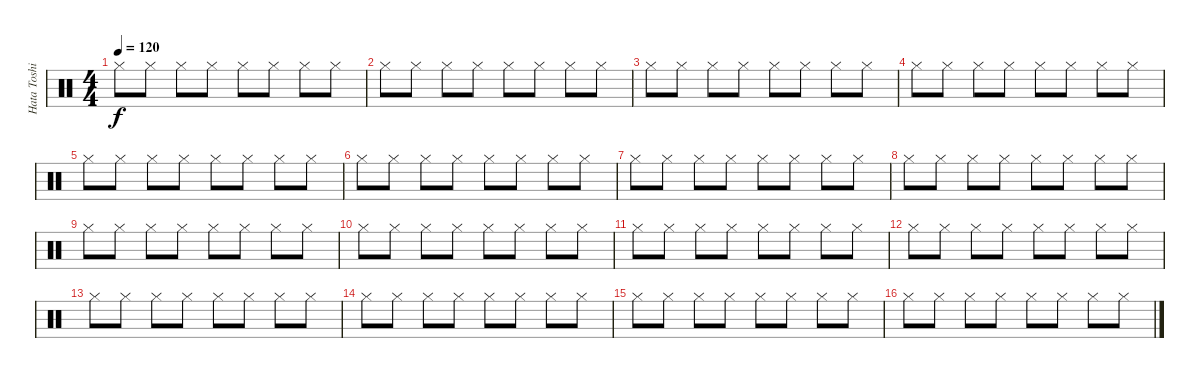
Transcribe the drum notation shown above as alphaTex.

\track ("Hata Toshiki" "Hata Toshi") {instrument percussion}
\staff {score}
\articulation defaults
\ts (4 4)
\tempo 120
\clef neutral
\ks c "Hi-Hat (closed)".8{dy f} "Hi-Hat (closed)".8 "Hi-Hat (closed)".8 "Hi-Hat (closed)".8 "Hi-Hat (closed)".8 "Hi-Hat (closed)".8 "Hi-Hat (closed)".8 "Hi-Hat (closed)".8
|
"Hi-Hat (closed)".8 "Hi-Hat (closed)".8 "Hi-Hat (closed)".8 "Hi-Hat (closed)".8 "Hi-Hat (closed)".8 "Hi-Hat (closed)".8 "Hi-Hat (closed)".8 "Hi-Hat (closed)".8 |
"Hi-Hat (closed)".8 "Hi-Hat (closed)".8 "Hi-Hat (closed)".8 "Hi-Hat (closed)".8 "Hi-Hat (closed)".8 "Hi-Hat (closed)".8 "Hi-Hat (closed)".8 "Hi-Hat (closed)".8 |
"Hi-Hat (closed)".8 "Hi-Hat (closed)".8 "Hi-Hat (closed)".8 "Hi-Hat (closed)".8 "Hi-Hat (closed)".8 "Hi-Hat (closed)".8 "Hi-Hat (closed)".8 "Hi-Hat (closed)".8 |
"Hi-Hat (closed)".8 "Hi-Hat (closed)".8 "Hi-Hat (closed)".8 "Hi-Hat (closed)".8 "Hi-Hat (closed)".8 "Hi-Hat (closed)".8 "Hi-Hat (closed)".8 "Hi-Hat (closed)".8 |
"Hi-Hat (closed)".8 "Hi-Hat (closed)".8 "Hi-Hat (closed)".8 "Hi-Hat (closed)".8 "Hi-Hat (closed)".8 "Hi-Hat (closed)".8 "Hi-Hat (closed)".8 "Hi-Hat (closed)".8 |
"Hi-Hat (closed)".8 "Hi-Hat (closed)".8 "Hi-Hat (closed)".8 "Hi-Hat (closed)".8 "Hi-Hat (closed)".8 "Hi-Hat (closed)".8 "Hi-Hat (closed)".8 "Hi-Hat (closed)".8 |
"Hi-Hat (closed)".8 "Hi-Hat (closed)".8 "Hi-Hat (closed)".8 "Hi-Hat (closed)".8 "Hi-Hat (closed)".8 "Hi-Hat (closed)".8 "Hi-Hat (closed)".8 "Hi-Hat (closed)".8 |
"Hi-Hat (closed)".8 "Hi-Hat (closed)".8 "Hi-Hat (closed)".8 "Hi-Hat (closed)".8 "Hi-Hat (closed)".8 "Hi-Hat (closed)".8 "Hi-Hat (closed)".8 "Hi-Hat (closed)".8 |
"Hi-Hat (closed)".8 "Hi-Hat (closed)".8 "Hi-Hat (closed)".8 "Hi-Hat (closed)".8 "Hi-Hat (closed)".8 "Hi-Hat (closed)".8 "Hi-Hat (closed)".8 "Hi-Hat (closed)".8 |
"Hi-Hat (closed)".8 "Hi-Hat (closed)".8 "Hi-Hat (closed)".8 "Hi-Hat (closed)".8 "Hi-Hat (closed)".8 "Hi-Hat (closed)".8 "Hi-Hat (closed)".8 "Hi-Hat (closed)".8 |
"Hi-Hat (closed)".8 "Hi-Hat (closed)".8 "Hi-Hat (closed)".8 "Hi-Hat (closed)".8 "Hi-Hat (closed)".8 "Hi-Hat (closed)".8 "Hi-Hat (closed)".8 "Hi-Hat (closed)".8 |
"Hi-Hat (closed)".8 "Hi-Hat (closed)".8 "Hi-Hat (closed)".8 "Hi-Hat (closed)".8 "Hi-Hat (closed)".8 "Hi-Hat (closed)".8 "Hi-Hat (closed)".8 "Hi-Hat (closed)".8 |
"Hi-Hat (closed)".8 "Hi-Hat (closed)".8 "Hi-Hat (closed)".8 "Hi-Hat (closed)".8 "Hi-Hat (closed)".8 "Hi-Hat (closed)".8 "Hi-Hat (closed)".8 "Hi-Hat (closed)".8 |
"Hi-Hat (closed)".8 "Hi-Hat (closed)".8 "Hi-Hat (closed)".8 "Hi-Hat (closed)".8 "Hi-Hat (closed)".8 "Hi-Hat (closed)".8 "Hi-Hat (closed)".8 "Hi-Hat (closed)".8 |
"Hi-Hat (closed)".8 "Hi-Hat (closed)".8 "Hi-Hat (closed)".8 "Hi-Hat (closed)".8 "Hi-Hat (closed)".8 "Hi-Hat (closed)".8 "Hi-Hat (closed)".8 "Hi-Hat (closed)".8
